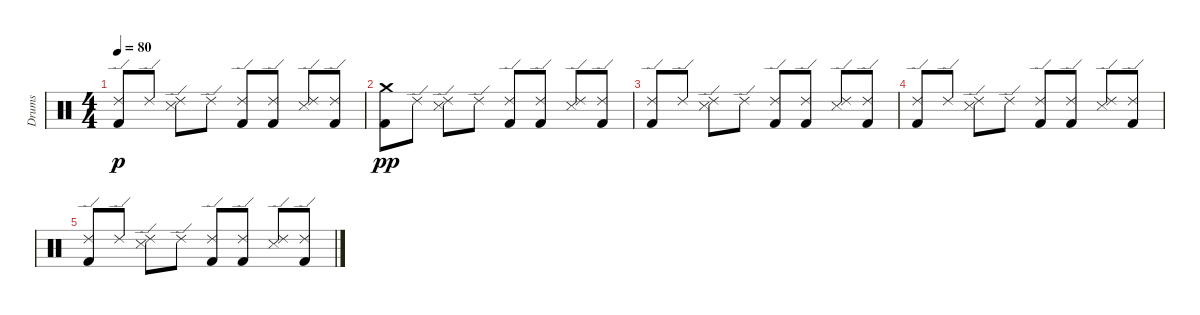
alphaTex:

\track ("Drums" "Drums") {instrument percussion}
\staff {score}
\articulation defaults
\ts (4 4)
\tempo 80
\clef neutral
\ks c
("Ride (edge) 2" "Kick (hit) 2").8{dy p} "Ride (edge) 2".8 ("Ride (edge) 2" "Snare (side stick) 3").8 "Ride (edge) 2".8 ("Ride (edge) 2" "Kick (hit) 2").8 ("Ride (edge) 2" "Kick (hit) 2").8 ("Ride (edge) 2" "Snare (side stick) 3").8 ("Ride (edge) 2" "Kick (hit) 2").8 |
("Crash medium (hit)" "Kick (hit) 2").8{dy pp} "Ride (edge) 2".8 ("Ride (edge) 2" "Snare (side stick) 3").8 "Ride (edge) 2".8 ("Ride (edge) 2" "Kick (hit) 2").8 ("Ride (edge) 2" "Kick (hit) 2").8 ("Ride (edge) 2" "Snare (side stick) 3").8 ("Ride (edge) 2" "Kick (hit) 2").8 |
("Ride (edge) 2" "Kick (hit) 2").8 "Ride (edge) 2".8 ("Ride (edge) 2" "Snare (side stick) 3").8 "Ride (edge) 2".8 ("Ride (edge) 2" "Kick (hit) 2").8 ("Ride (edge) 2" "Kick (hit) 2").8 ("Ride (edge) 2" "Snare (side stick) 3").8 ("Ride (edge) 2" "Kick (hit) 2").8 |
("Ride (edge) 2" "Kick (hit) 2").8 "Ride (edge) 2".8 ("Ride (edge) 2" "Snare (side stick) 3").8 "Ride (edge) 2".8 ("Ride (edge) 2" "Kick (hit) 2").8 ("Ride (edge) 2" "Kick (hit) 2").8 ("Ride (edge) 2" "Snare (side stick) 3").8 ("Ride (edge) 2" "Kick (hit) 2").8 |
("Ride (edge) 2" "Kick (hit) 2").8 "Ride (edge) 2".8 ("Ride (edge) 2" "Snare (side stick) 3").8 "Ride (edge) 2".8 ("Ride (edge) 2" "Kick (hit) 2").8 ("Ride (edge) 2" "Kick (hit) 2").8 ("Ride (edge) 2" "Snare (side stick) 3").8 ("Ride (edge) 2" "Kick (hit) 2").8
